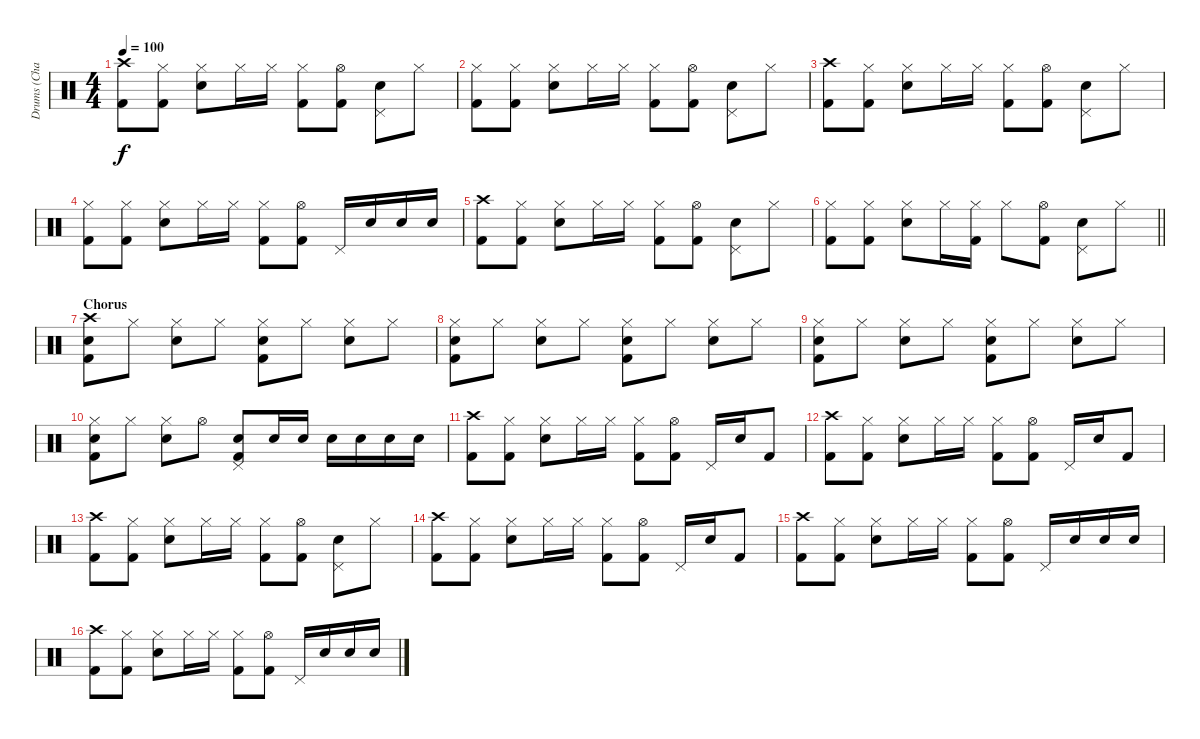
\track ("Drums (Charlie)" "Drums (Cha") {instrument percussion}
\staff {score}
\articulation defaults
\ts (4 4)
\tempo 100
\clef neutral
\ks c
("Crash high (hit)" "Kick (hit) 2").8{dy f} ("Hi-Hat (closed)" "Kick (hit) 2").8 ("Hi-Hat (closed)" "Electric Snare (hit)").8 "Hi-Hat (closed)".16 "Hi-Hat (closed)".16 ("Hi-Hat (closed)" "Kick (hit) 2").8 ("Hi-Hat (open)" "Kick (hit) 2").8 ("Pedal Hi-Hat (hit)" "Electric Snare (hit)").8 "Hi-Hat (closed)".8 |
("Hi-Hat (closed)" "Kick (hit) 2").8 ("Hi-Hat (closed)" "Kick (hit) 2").8 ("Hi-Hat (closed)" "Electric Snare (hit)").8 "Hi-Hat (closed)".16 "Hi-Hat (closed)".16 ("Hi-Hat (closed)" "Kick (hit) 2").8 ("Hi-Hat (open)" "Kick (hit) 2").8 ("Pedal Hi-Hat (hit)" "Electric Snare (hit)").8 "Hi-Hat (closed)".8 |
("Crash high (hit)" "Kick (hit) 2").8 ("Hi-Hat (closed)" "Kick (hit) 2").8 ("Hi-Hat (closed)" "Electric Snare (hit)").8 "Hi-Hat (closed)".16 "Hi-Hat (closed)".16 ("Hi-Hat (closed)" "Kick (hit) 2").8 ("Hi-Hat (open)" "Kick (hit) 2").8 ("Pedal Hi-Hat (hit)" "Electric Snare (hit)").8 "Hi-Hat (closed)".8 |
("Hi-Hat (closed)" "Kick (hit) 2").8 ("Hi-Hat (closed)" "Kick (hit) 2").8 ("Hi-Hat (closed)" "Electric Snare (hit)").8 "Hi-Hat (closed)".16 "Hi-Hat (closed)".16 ("Hi-Hat (closed)" "Kick (hit) 2").8 ("Hi-Hat (open)" "Kick (hit) 2").8 "Pedal Hi-Hat (hit)".16 "Electric Snare (hit)".16 "Electric Snare (hit)".16 "Electric Snare (hit)".16 |
("Crash high (hit)" "Kick (hit) 2").8 ("Hi-Hat (closed)" "Kick (hit) 2").8 ("Hi-Hat (closed)" "Electric Snare (hit)").8 "Hi-Hat (closed)".16 "Hi-Hat (closed)".16 ("Hi-Hat (closed)" "Kick (hit) 2").8 ("Hi-Hat (open)" "Kick (hit) 2").8 ("Pedal Hi-Hat (hit)" "Electric Snare (hit)").8 "Hi-Hat (closed)".8 |
\barLineRight lightlight
("Hi-Hat (closed)" "Kick (hit) 2").8 ("Hi-Hat (closed)" "Kick (hit) 2").8 ("Hi-Hat (closed)" "Electric Snare (hit)").8 "Hi-Hat (closed)".16 ("Hi-Hat (closed)" "Kick (hit) 2").16 "Hi-Hat (closed)".8 ("Hi-Hat (open)" "Kick (hit) 2").8 ("Pedal Hi-Hat (hit)" "Electric Snare (hit)").8 "Hi-Hat (closed)".8 |
\section ("" "Chorus")
("Crash high (hit)" "Electric Snare (hit)" "Kick (hit) 2").8 "Hi-Hat (closed)".8 ("Hi-Hat (closed)" "Electric Snare (hit)").8 "Hi-Hat (closed)".8 ("Hi-Hat (closed)" "Electric Snare (hit)" "Kick (hit) 2").8 "Hi-Hat (closed)".8 ("Hi-Hat (closed)" "Electric Snare (hit)").8 "Hi-Hat (closed)".8 |
("Hi-Hat (closed)" "Electric Snare (hit)" "Kick (hit) 2").8 "Hi-Hat (closed)".8 ("Hi-Hat (closed)" "Electric Snare (hit)").8 "Hi-Hat (closed)".8 ("Hi-Hat (closed)" "Electric Snare (hit)" "Kick (hit) 2").8 "Hi-Hat (closed)".8 ("Hi-Hat (closed)" "Electric Snare (hit)").8 "Hi-Hat (closed)".8 |
("Hi-Hat (closed)" "Electric Snare (hit)" "Kick (hit) 2").8 "Hi-Hat (closed)".8 ("Hi-Hat (closed)" "Electric Snare (hit)").8 "Hi-Hat (closed)".8 ("Hi-Hat (closed)" "Electric Snare (hit)" "Kick (hit) 2").8 "Hi-Hat (closed)".8 ("Hi-Hat (closed)" "Electric Snare (hit)").8 "Hi-Hat (closed)".8 |
("Hi-Hat (closed)" "Electric Snare (hit)" "Kick (hit) 2").8 "Hi-Hat (closed)".8 ("Hi-Hat (closed)" "Electric Snare (hit)").8 "Hi-Hat (open)".8 ("Pedal Hi-Hat (hit)" "Electric Snare (hit)" "Kick (hit) 2").8 "Electric Snare (hit)".16 "Electric Snare (hit)".16 "Electric Snare (hit)".16 "Electric Snare (hit)".16 "Electric Snare (hit)".16 "Electric Snare (hit)".16 |
("Crash high (hit)" "Kick (hit) 2").8 ("Hi-Hat (closed)" "Kick (hit) 2").8 ("Hi-Hat (closed)" "Electric Snare (hit)").8 "Hi-Hat (closed)".16 "Hi-Hat (closed)".16 ("Hi-Hat (closed)" "Kick (hit) 2").8 ("Hi-Hat (open)" "Kick (hit) 2").8 "Pedal Hi-Hat (hit)".16 "Electric Snare (hit)".16 "Kick (hit) 2".8 |
("Crash high (hit)" "Kick (hit) 2").8 ("Hi-Hat (closed)" "Kick (hit) 2").8 ("Hi-Hat (closed)" "Electric Snare (hit)").8 "Hi-Hat (closed)".16 "Hi-Hat (closed)".16 ("Hi-Hat (closed)" "Kick (hit) 2").8 ("Hi-Hat (open)" "Kick (hit) 2").8 "Pedal Hi-Hat (hit)".16 "Electric Snare (hit)".16 "Kick (hit) 2".8 |
("Crash high (hit)" "Kick (hit) 2").8 ("Hi-Hat (closed)" "Kick (hit) 2").8 ("Hi-Hat (closed)" "Electric Snare (hit)").8 "Hi-Hat (closed)".16 "Hi-Hat (closed)".16 ("Hi-Hat (closed)" "Kick (hit) 2").8 ("Hi-Hat (open)" "Kick (hit) 2").8 ("Pedal Hi-Hat (hit)" "Electric Snare (hit)").8 "Hi-Hat (closed)".8 |
("Crash high (hit)" "Kick (hit) 2").8 ("Hi-Hat (closed)" "Kick (hit) 2").8 ("Hi-Hat (closed)" "Electric Snare (hit)").8 "Hi-Hat (closed)".16 "Hi-Hat (closed)".16 ("Hi-Hat (closed)" "Kick (hit) 2").8 ("Hi-Hat (open)" "Kick (hit) 2").8 "Pedal Hi-Hat (hit)".16 "Electric Snare (hit)".16 "Kick (hit) 2".8 |
("Crash high (hit)" "Kick (hit) 2").8 ("Hi-Hat (closed)" "Kick (hit) 2").8 ("Hi-Hat (closed)" "Electric Snare (hit)").8 "Hi-Hat (closed)".16 "Hi-Hat (closed)".16 ("Hi-Hat (closed)" "Kick (hit) 2").8 ("Hi-Hat (open)" "Kick (hit) 2").8 "Pedal Hi-Hat (hit)".16 "Electric Snare (hit)".16 "Electric Snare (hit)".16 "Electric Snare (hit)".16 |
("Crash high (hit)" "Kick (hit) 2").8 ("Hi-Hat (closed)" "Kick (hit) 2").8 ("Hi-Hat (closed)" "Electric Snare (hit)").8 "Hi-Hat (closed)".16 "Hi-Hat (closed)".16 ("Hi-Hat (closed)" "Kick (hit) 2").8 ("Hi-Hat (open)" "Kick (hit) 2").8 "Pedal Hi-Hat (hit)".16 "Electric Snare (hit)".16 "Electric Snare (hit)".16 "Electric Snare (hit)".16
